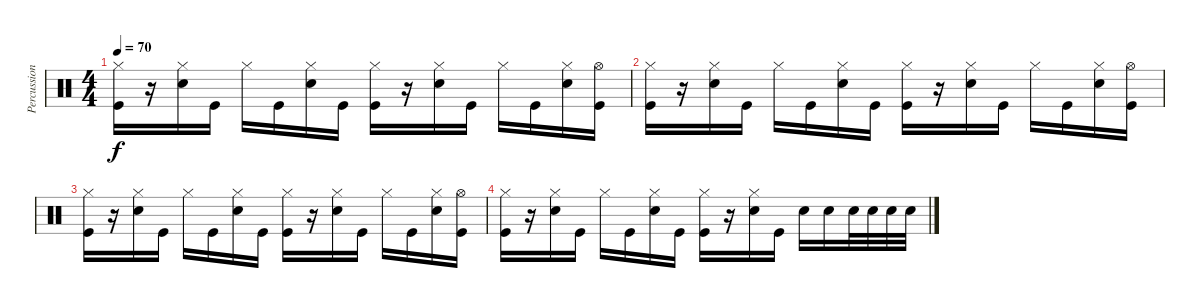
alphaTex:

\track ("Percussion" "Percussion") {instrument percussion}
\staff {score}
\articulation defaults
\ts (4 4)
\tempo 70
\clef neutral
\ks c
("Hi-Hat (closed)" "Kick (hit)").16{dy f} r.16 ("Hi-Hat (closed)" "Electric Snare (hit)").16 "Kick (hit)".16 "Hi-Hat (closed)".16 "Kick (hit)".16 ("Hi-Hat (closed)" "Electric Snare (hit)").16 "Kick (hit)".16 ("Hi-Hat (closed)" "Kick (hit)").16 r.16 ("Hi-Hat (closed)" "Electric Snare (hit)").16 "Kick (hit)".16 "Hi-Hat (closed)".16 "Kick (hit)".16 ("Hi-Hat (closed)" "Electric Snare (hit)").16 ("Hi-Hat (open)" "Kick (hit)").16 |
("Hi-Hat (closed)" "Kick (hit)").16 r.16 ("Hi-Hat (closed)" "Electric Snare (hit)").16 "Kick (hit)".16 "Hi-Hat (closed)".16 "Kick (hit)".16 ("Hi-Hat (closed)" "Electric Snare (hit)").16 "Kick (hit)".16 ("Hi-Hat (closed)" "Kick (hit)").16 r.16 ("Hi-Hat (closed)" "Electric Snare (hit)").16 "Kick (hit)".16 "Hi-Hat (closed)".16 "Kick (hit)".16 ("Hi-Hat (closed)" "Electric Snare (hit)").16 ("Hi-Hat (open)" "Kick (hit)").16 |
("Hi-Hat (closed)" "Kick (hit)").16 r.16 ("Hi-Hat (closed)" "Electric Snare (hit)").16 "Kick (hit)".16 "Hi-Hat (closed)".16 "Kick (hit)".16 ("Hi-Hat (closed)" "Electric Snare (hit)").16 "Kick (hit)".16 ("Hi-Hat (closed)" "Kick (hit)").16 r.16 ("Hi-Hat (closed)" "Electric Snare (hit)").16 "Kick (hit)".16 "Hi-Hat (closed)".16 "Kick (hit)".16 ("Hi-Hat (closed)" "Electric Snare (hit)").16 ("Hi-Hat (open)" "Kick (hit)").16 |
("Hi-Hat (closed)" "Kick (hit)").16 r.16 ("Hi-Hat (closed)" "Electric Snare (hit)").16 "Kick (hit)".16 "Hi-Hat (closed)".16 "Kick (hit)".16 ("Hi-Hat (closed)" "Electric Snare (hit)").16 "Kick (hit)".16 ("Hi-Hat (closed)" "Kick (hit)").16 r.16 ("Hi-Hat (closed)" "Electric Snare (hit)").16 "Kick (hit)".16 "Electric Snare (hit)".16 "Electric Snare (hit)".16 "Electric Snare (hit)".32 "Electric Snare (hit)".32 "Electric Snare (hit)".32 "Electric Snare (hit)".32
